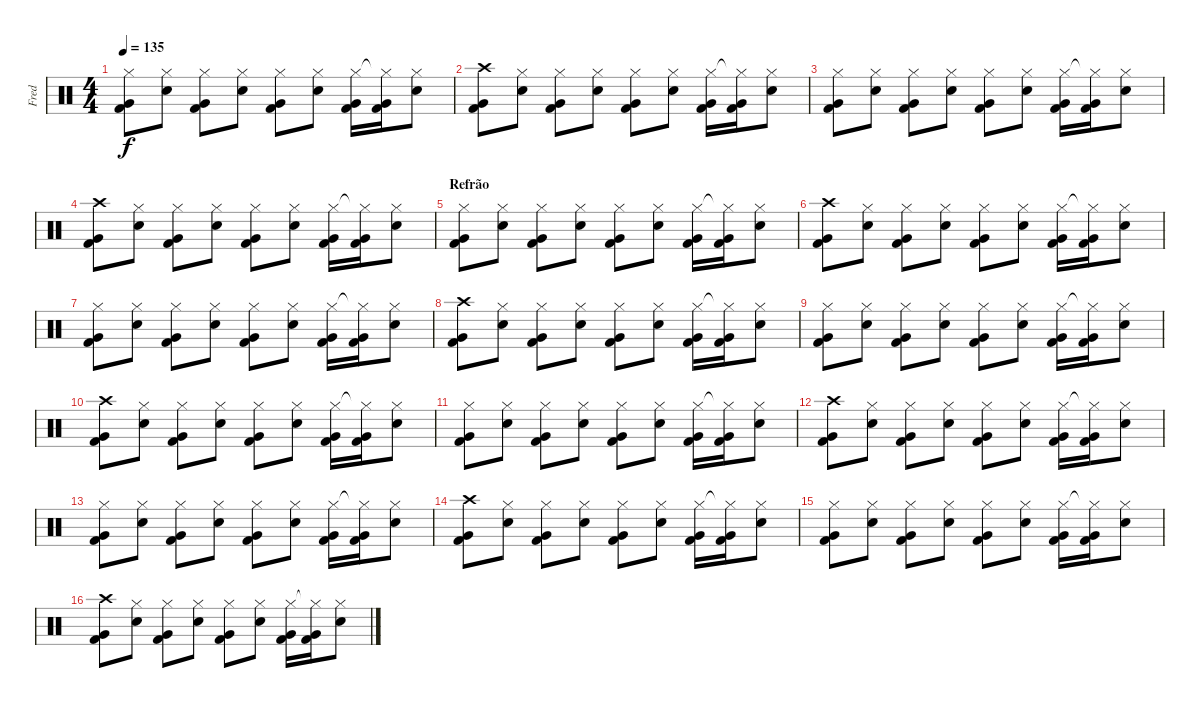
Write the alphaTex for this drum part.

\track ("Fred" "Fred") {instrument percussion}
\staff {score}
\articulation defaults
\ts (4 4)
\tempo 135
\clef neutral
\ks c
("Very Low Tom (hit)" "Kick (hit) 2" "Hi-Hat (closed)").8{dy f} ("Snare (hit) 2" "Hi-Hat (closed)").8 ("Very Low Tom (hit)" "Kick (hit) 2" "Hi-Hat (closed)").8 ("Snare (hit) 2" "Hi-Hat (closed)").8 ("Very Low Tom (hit)" "Kick (hit) 2" "Hi-Hat (closed)").8 ("Snare (hit) 2" "Hi-Hat (closed)").8 ("Very Low Tom (hit)" "Kick (hit) 2" "Hi-Hat (closed)").16 ("Very Low Tom (hit)" "Kick (hit) 2" "Hi-Hat (closed)"{t}).16 ("Snare (hit) 2" "Hi-Hat (closed)").8 |
("Very Low Tom (hit)" "Kick (hit) 2" "Crash high (hit)").8 ("Snare (hit) 2" "Hi-Hat (closed)").8 ("Very Low Tom (hit)" "Kick (hit) 2" "Hi-Hat (closed)").8 ("Snare (hit) 2" "Hi-Hat (closed)").8 ("Very Low Tom (hit)" "Kick (hit) 2" "Hi-Hat (closed)").8 ("Snare (hit) 2" "Hi-Hat (closed)").8 ("Very Low Tom (hit)" "Kick (hit) 2" "Hi-Hat (closed)").16 ("Very Low Tom (hit)" "Kick (hit) 2" "Hi-Hat (closed)"{t}).16 ("Snare (hit) 2" "Hi-Hat (closed)").8 |
("Very Low Tom (hit)" "Kick (hit) 2" "Hi-Hat (closed)").8 ("Snare (hit) 2" "Hi-Hat (closed)").8 ("Very Low Tom (hit)" "Kick (hit) 2" "Hi-Hat (closed)").8 ("Snare (hit) 2" "Hi-Hat (closed)").8 ("Very Low Tom (hit)" "Kick (hit) 2" "Hi-Hat (closed)").8 ("Snare (hit) 2" "Hi-Hat (closed)").8 ("Very Low Tom (hit)" "Kick (hit) 2" "Hi-Hat (closed)").16 ("Very Low Tom (hit)" "Kick (hit) 2" "Hi-Hat (closed)"{t}).16 ("Snare (hit) 2" "Hi-Hat (closed)").8 |
("Very Low Tom (hit)" "Kick (hit) 2" "Crash high (hit)").8 ("Snare (hit) 2" "Hi-Hat (closed)").8 ("Very Low Tom (hit)" "Kick (hit) 2" "Hi-Hat (closed)").8 ("Snare (hit) 2" "Hi-Hat (closed)").8 ("Very Low Tom (hit)" "Kick (hit) 2" "Hi-Hat (closed)").8 ("Snare (hit) 2" "Hi-Hat (closed)").8 ("Very Low Tom (hit)" "Kick (hit) 2" "Hi-Hat (closed)").16 ("Very Low Tom (hit)" "Kick (hit) 2" "Hi-Hat (closed)"{t}).16 ("Snare (hit) 2" "Hi-Hat (closed)").8 |
\section ("" "Refrão")
("Very Low Tom (hit)" "Kick (hit) 2" "Hi-Hat (closed)").8 ("Snare (hit) 2" "Hi-Hat (closed)").8 ("Very Low Tom (hit)" "Kick (hit) 2" "Hi-Hat (closed)").8 ("Snare (hit) 2" "Hi-Hat (closed)").8 ("Very Low Tom (hit)" "Kick (hit) 2" "Hi-Hat (closed)").8 ("Snare (hit) 2" "Hi-Hat (closed)").8 ("Very Low Tom (hit)" "Kick (hit) 2" "Hi-Hat (closed)").16 ("Very Low Tom (hit)" "Kick (hit) 2" "Hi-Hat (closed)"{t}).16 ("Snare (hit) 2" "Hi-Hat (closed)").8 |
("Very Low Tom (hit)" "Kick (hit) 2" "Crash high (hit)").8 ("Snare (hit) 2" "Hi-Hat (closed)").8 ("Very Low Tom (hit)" "Kick (hit) 2" "Hi-Hat (closed)").8 ("Snare (hit) 2" "Hi-Hat (closed)").8 ("Very Low Tom (hit)" "Kick (hit) 2" "Hi-Hat (closed)").8 ("Snare (hit) 2" "Hi-Hat (closed)").8 ("Very Low Tom (hit)" "Kick (hit) 2" "Hi-Hat (closed)").16 ("Very Low Tom (hit)" "Kick (hit) 2" "Hi-Hat (closed)"{t}).16 ("Snare (hit) 2" "Hi-Hat (closed)").8 |
("Very Low Tom (hit)" "Kick (hit) 2" "Hi-Hat (closed)").8 ("Snare (hit) 2" "Hi-Hat (closed)").8 ("Very Low Tom (hit)" "Kick (hit) 2" "Hi-Hat (closed)").8 ("Snare (hit) 2" "Hi-Hat (closed)").8 ("Very Low Tom (hit)" "Kick (hit) 2" "Hi-Hat (closed)").8 ("Snare (hit) 2" "Hi-Hat (closed)").8 ("Very Low Tom (hit)" "Kick (hit) 2" "Hi-Hat (closed)").16 ("Very Low Tom (hit)" "Kick (hit) 2" "Hi-Hat (closed)"{t}).16 ("Snare (hit) 2" "Hi-Hat (closed)").8 |
("Very Low Tom (hit)" "Kick (hit) 2" "Crash high (hit)").8 ("Snare (hit) 2" "Hi-Hat (closed)").8 ("Very Low Tom (hit)" "Kick (hit) 2" "Hi-Hat (closed)").8 ("Snare (hit) 2" "Hi-Hat (closed)").8 ("Very Low Tom (hit)" "Kick (hit) 2" "Hi-Hat (closed)").8 ("Snare (hit) 2" "Hi-Hat (closed)").8 ("Very Low Tom (hit)" "Kick (hit) 2" "Hi-Hat (closed)").16 ("Very Low Tom (hit)" "Kick (hit) 2" "Hi-Hat (closed)"{t}).16 ("Snare (hit) 2" "Hi-Hat (closed)").8 |
("Very Low Tom (hit)" "Kick (hit) 2" "Hi-Hat (closed)").8 ("Snare (hit) 2" "Hi-Hat (closed)").8 ("Very Low Tom (hit)" "Kick (hit) 2" "Hi-Hat (closed)").8 ("Snare (hit) 2" "Hi-Hat (closed)").8 ("Very Low Tom (hit)" "Kick (hit) 2" "Hi-Hat (closed)").8 ("Snare (hit) 2" "Hi-Hat (closed)").8 ("Very Low Tom (hit)" "Kick (hit) 2" "Hi-Hat (closed)").16 ("Very Low Tom (hit)" "Kick (hit) 2" "Hi-Hat (closed)"{t}).16 ("Snare (hit) 2" "Hi-Hat (closed)").8 |
("Very Low Tom (hit)" "Kick (hit) 2" "Crash high (hit)").8 ("Snare (hit) 2" "Hi-Hat (closed)").8 ("Very Low Tom (hit)" "Kick (hit) 2" "Hi-Hat (closed)").8 ("Snare (hit) 2" "Hi-Hat (closed)").8 ("Very Low Tom (hit)" "Kick (hit) 2" "Hi-Hat (closed)").8 ("Snare (hit) 2" "Hi-Hat (closed)").8 ("Very Low Tom (hit)" "Kick (hit) 2" "Hi-Hat (closed)").16 ("Very Low Tom (hit)" "Kick (hit) 2" "Hi-Hat (closed)"{t}).16 ("Snare (hit) 2" "Hi-Hat (closed)").8 |
("Very Low Tom (hit)" "Kick (hit) 2" "Hi-Hat (closed)").8 ("Snare (hit) 2" "Hi-Hat (closed)").8 ("Very Low Tom (hit)" "Kick (hit) 2" "Hi-Hat (closed)").8 ("Snare (hit) 2" "Hi-Hat (closed)").8 ("Very Low Tom (hit)" "Kick (hit) 2" "Hi-Hat (closed)").8 ("Snare (hit) 2" "Hi-Hat (closed)").8 ("Very Low Tom (hit)" "Kick (hit) 2" "Hi-Hat (closed)").16 ("Very Low Tom (hit)" "Kick (hit) 2" "Hi-Hat (closed)"{t}).16 ("Snare (hit) 2" "Hi-Hat (closed)").8 |
("Very Low Tom (hit)" "Kick (hit) 2" "Crash high (hit)").8 ("Snare (hit) 2" "Hi-Hat (closed)").8 ("Very Low Tom (hit)" "Kick (hit) 2" "Hi-Hat (closed)").8 ("Snare (hit) 2" "Hi-Hat (closed)").8 ("Very Low Tom (hit)" "Kick (hit) 2" "Hi-Hat (closed)").8 ("Snare (hit) 2" "Hi-Hat (closed)").8 ("Very Low Tom (hit)" "Kick (hit) 2" "Hi-Hat (closed)").16 ("Very Low Tom (hit)" "Kick (hit) 2" "Hi-Hat (closed)"{t}).16 ("Snare (hit) 2" "Hi-Hat (closed)").8 |
("Very Low Tom (hit)" "Kick (hit) 2" "Hi-Hat (closed)").8 ("Snare (hit) 2" "Hi-Hat (closed)").8 ("Very Low Tom (hit)" "Kick (hit) 2" "Hi-Hat (closed)").8 ("Snare (hit) 2" "Hi-Hat (closed)").8 ("Very Low Tom (hit)" "Kick (hit) 2" "Hi-Hat (closed)").8 ("Snare (hit) 2" "Hi-Hat (closed)").8 ("Very Low Tom (hit)" "Kick (hit) 2" "Hi-Hat (closed)").16 ("Very Low Tom (hit)" "Kick (hit) 2" "Hi-Hat (closed)"{t}).16 ("Snare (hit) 2" "Hi-Hat (closed)").8 |
("Very Low Tom (hit)" "Kick (hit) 2" "Crash high (hit)").8 ("Snare (hit) 2" "Hi-Hat (closed)").8 ("Very Low Tom (hit)" "Kick (hit) 2" "Hi-Hat (closed)").8 ("Snare (hit) 2" "Hi-Hat (closed)").8 ("Very Low Tom (hit)" "Kick (hit) 2" "Hi-Hat (closed)").8 ("Snare (hit) 2" "Hi-Hat (closed)").8 ("Very Low Tom (hit)" "Kick (hit) 2" "Hi-Hat (closed)").16 ("Very Low Tom (hit)" "Kick (hit) 2" "Hi-Hat (closed)"{t}).16 ("Snare (hit) 2" "Hi-Hat (closed)").8 |
("Very Low Tom (hit)" "Kick (hit) 2" "Hi-Hat (closed)").8 ("Snare (hit) 2" "Hi-Hat (closed)").8 ("Very Low Tom (hit)" "Kick (hit) 2" "Hi-Hat (closed)").8 ("Snare (hit) 2" "Hi-Hat (closed)").8 ("Very Low Tom (hit)" "Kick (hit) 2" "Hi-Hat (closed)").8 ("Snare (hit) 2" "Hi-Hat (closed)").8 ("Very Low Tom (hit)" "Kick (hit) 2" "Hi-Hat (closed)").16 ("Very Low Tom (hit)" "Kick (hit) 2" "Hi-Hat (closed)"{t}).16 ("Snare (hit) 2" "Hi-Hat (closed)").8 |
("Very Low Tom (hit)" "Kick (hit) 2" "Crash high (hit)").8 ("Snare (hit) 2" "Hi-Hat (closed)").8 ("Very Low Tom (hit)" "Kick (hit) 2" "Hi-Hat (closed)").8 ("Snare (hit) 2" "Hi-Hat (closed)").8 ("Very Low Tom (hit)" "Kick (hit) 2" "Hi-Hat (closed)").8 ("Snare (hit) 2" "Hi-Hat (closed)").8 ("Very Low Tom (hit)" "Kick (hit) 2" "Hi-Hat (closed)").16 ("Very Low Tom (hit)" "Kick (hit) 2" "Hi-Hat (closed)"{t}).16 ("Snare (hit) 2" "Hi-Hat (closed)").8
